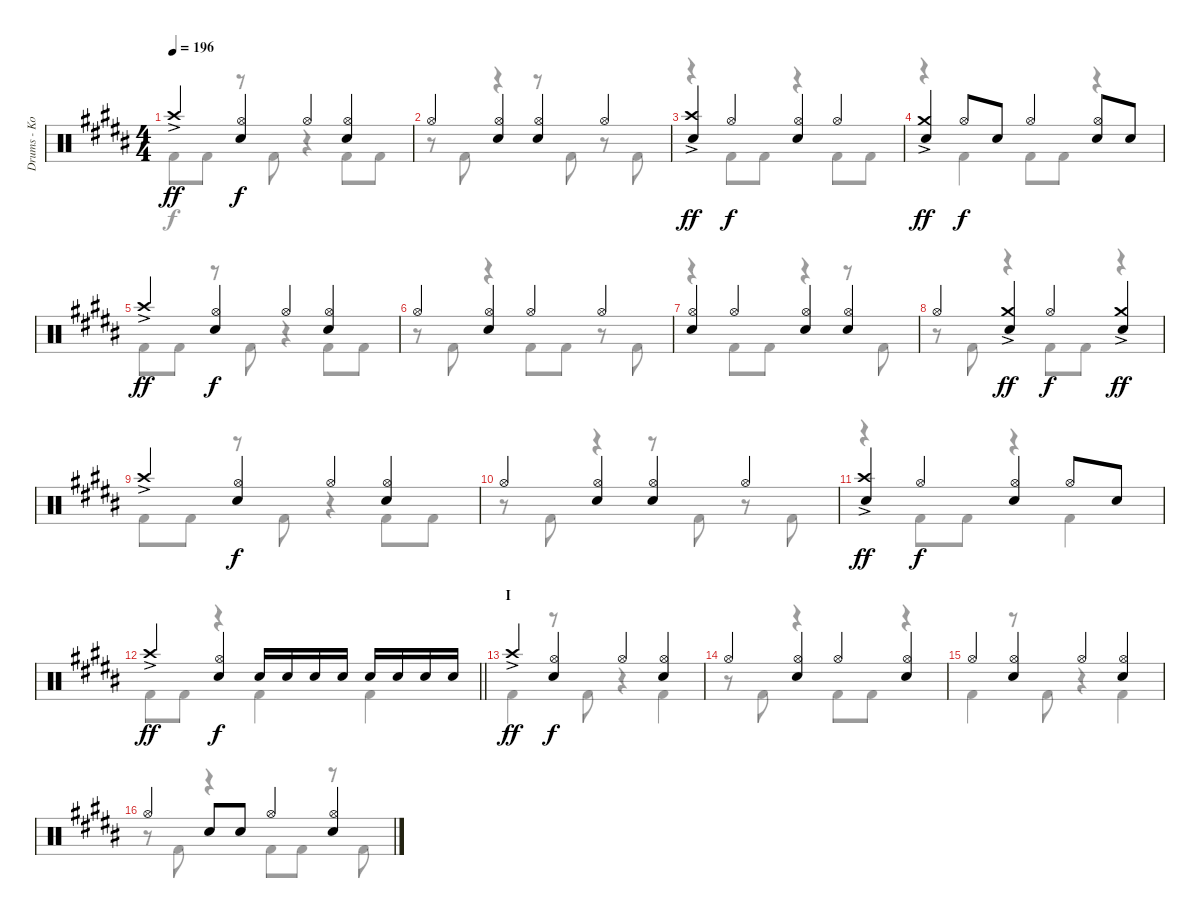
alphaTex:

\track ("Drums - Koji Hasegawa" "Drums - Ko") {instrument percussion}
\staff {score}
\articulation defaults
\voice
\ts (4 4)
\tempo 196
\clef neutral
\ks b "Crash high (hit)"{ac}.4{dy ff}
("Hi-Hat (open)" "Snare (hit) 2").4{dy f} "Hi-Hat (open)".4 ("Hi-Hat (open)" "Snare (hit) 2").4 |
"Hi-Hat (open)".4 ("Hi-Hat (open)" "Snare (hit) 2").4 ("Hi-Hat (open)" "Snare (hit) 2").4 "Hi-Hat (open)".4 |
("Crash high (hit)"{ac} "Snare (hit) 2").4{dy ff} "Hi-Hat (open)".4{dy f} ("Hi-Hat (open)" "Snare (hit) 2").4 "Hi-Hat (open)".4 |
("Crash medium (hit)"{ac} "Snare (hit) 2").4{dy ff} "Hi-Hat (open)".8{dy f} "Snare (hit) 2".8 "Hi-Hat (open)".4 ("Hi-Hat (open)" "Snare (hit) 2").8 "Snare (hit) 2".8 |
"Crash high (hit)"{ac}.4{dy ff} ("Hi-Hat (open)" "Snare (hit) 2").4{dy f} "Hi-Hat (open)".4 ("Hi-Hat (open)" "Snare (hit) 2").4 |
"Hi-Hat (open)".4 ("Hi-Hat (open)" "Snare (hit) 2").4 "Hi-Hat (open)".4 "Hi-Hat (open)".4 |
("Hi-Hat (open)" "Snare (hit) 2").4 "Hi-Hat (open)".4 ("Hi-Hat (open)" "Snare (hit) 2").4 ("Hi-Hat (open)" "Snare (hit) 2").4 |
"Hi-Hat (open)".4 ("Crash medium (hit)"{ac} "Snare (hit) 2").4{dy ff} "Hi-Hat (open)".4{dy f} ("Crash medium (hit)"{ac} "Snare (hit) 2").4{dy ff} |
"Crash high (hit)"{ac}.4 ("Hi-Hat (open)" "Snare (hit) 2").4{dy f} "Hi-Hat (open)".4 ("Hi-Hat (open)" "Snare (hit) 2").4 |
"Hi-Hat (open)".4 ("Hi-Hat (open)" "Snare (hit) 2").4 ("Hi-Hat (open)" "Snare (hit) 2").4 "Hi-Hat (open)".4 |
("Crash high (hit)"{ac} "Snare (hit) 2").4{dy ff} "Hi-Hat (open)".4{dy f} ("Hi-Hat (open)" "Snare (hit) 2").4 "Hi-Hat (open)".8 "Snare (hit) 2".8 |
\barLineRight lightlight "Crash high (hit)"{ac}.4{dy ff}
("Hi-Hat (open)" "Snare (hit) 2").4{dy f} "Snare (hit) 2".16 "Snare (hit) 2".16 "Snare (hit) 2".16 "Snare (hit) 2".16 "Snare (hit) 2".16 "Snare (hit) 2".16 "Snare (hit) 2".16 "Snare (hit) 2".16 |
\section ("" "I")
"Crash high (hit)"{ac}.4{dy ff} ("Hi-Hat (open)" "Snare (hit) 2").4{dy f} "Hi-Hat (open)".4 ("Hi-Hat (open)" "Snare (hit) 2").4 |
"Hi-Hat (open)".4 ("Hi-Hat (open)" "Snare (hit) 2").4 "Hi-Hat (open)".4 ("Hi-Hat (open)" "Snare (hit) 2").4 |
"Hi-Hat (open)".4 ("Hi-Hat (open)" "Snare (hit) 2").4 "Hi-Hat (open)".4 ("Hi-Hat (open)" "Snare (hit) 2").4 |
"Hi-Hat (open)".4 "Snare (hit) 2".8 "Snare (hit) 2".8 "Hi-Hat (open)".4 ("Hi-Hat (open)" "Snare (hit) 2").4
\voice
\clef neutral
\ottava regular
\simile none
\ks b "Kick (hit) 2".8{dy f} "Kick (hit) 2".8
r.8 "Kick (hit) 2".8 r.4 "Kick (hit) 2".8 "Kick (hit) 2".8 |
r.8 "Kick (hit) 2".8 r.4 r.8 "Kick (hit) 2".8 r.8 "Kick (hit) 2".8 |
r.4 "Kick (hit) 2".8 "Kick (hit) 2".8 r.4 "Kick (hit) 2".8 "Kick (hit) 2".8 |
r.4 "Kick (hit) 2".4 "Kick (hit) 2".8 "Kick (hit) 2".8 r.4 |
"Kick (hit) 2".8 "Kick (hit) 2".8 r.8 "Kick (hit) 2".8 r.4 "Kick (hit) 2".8 "Kick (hit) 2".8 |
r.8 "Kick (hit) 2".8 r.4 "Kick (hit) 2".8 "Kick (hit) 2".8 r.8 "Kick (hit) 2".8 |
r.4 "Kick (hit) 2".8 "Kick (hit) 2".8 r.4 r.8 "Kick (hit) 2".8 |
r.8 "Kick (hit) 2".8 r.4 "Kick (hit) 2".8 "Kick (hit) 2".8 r.4 |
"Kick (hit) 2".8 "Kick (hit) 2".8 r.8 "Kick (hit) 2".8 r.4 "Kick (hit) 2".8 "Kick (hit) 2".8 |
r.8 "Kick (hit) 2".8 r.4 r.8 "Kick (hit) 2".8 r.8 "Kick (hit) 2".8 |
r.4 "Kick (hit) 2".8 "Kick (hit) 2".8 r.4 "Kick (hit) 2".4 |
\barLineRight lightlight "Kick (hit) 2".8 "Kick (hit) 2".8
r.4 "Kick (hit) 2".4 "Kick (hit) 2".4 |
"Kick (hit) 2".4 r.8 "Kick (hit) 2".8 r.4 "Kick (hit) 2".4 |
r.8 "Kick (hit) 2".8 r.4 "Kick (hit) 2".8 "Kick (hit) 2".8 r.4 |
"Kick (hit) 2".4 r.8 "Kick (hit) 2".8 r.4 "Kick (hit) 2".4 |
r.8 "Kick (hit) 2".8 r.4 "Kick (hit) 2".8 "Kick (hit) 2".8 r.8 "Kick (hit) 2".8
